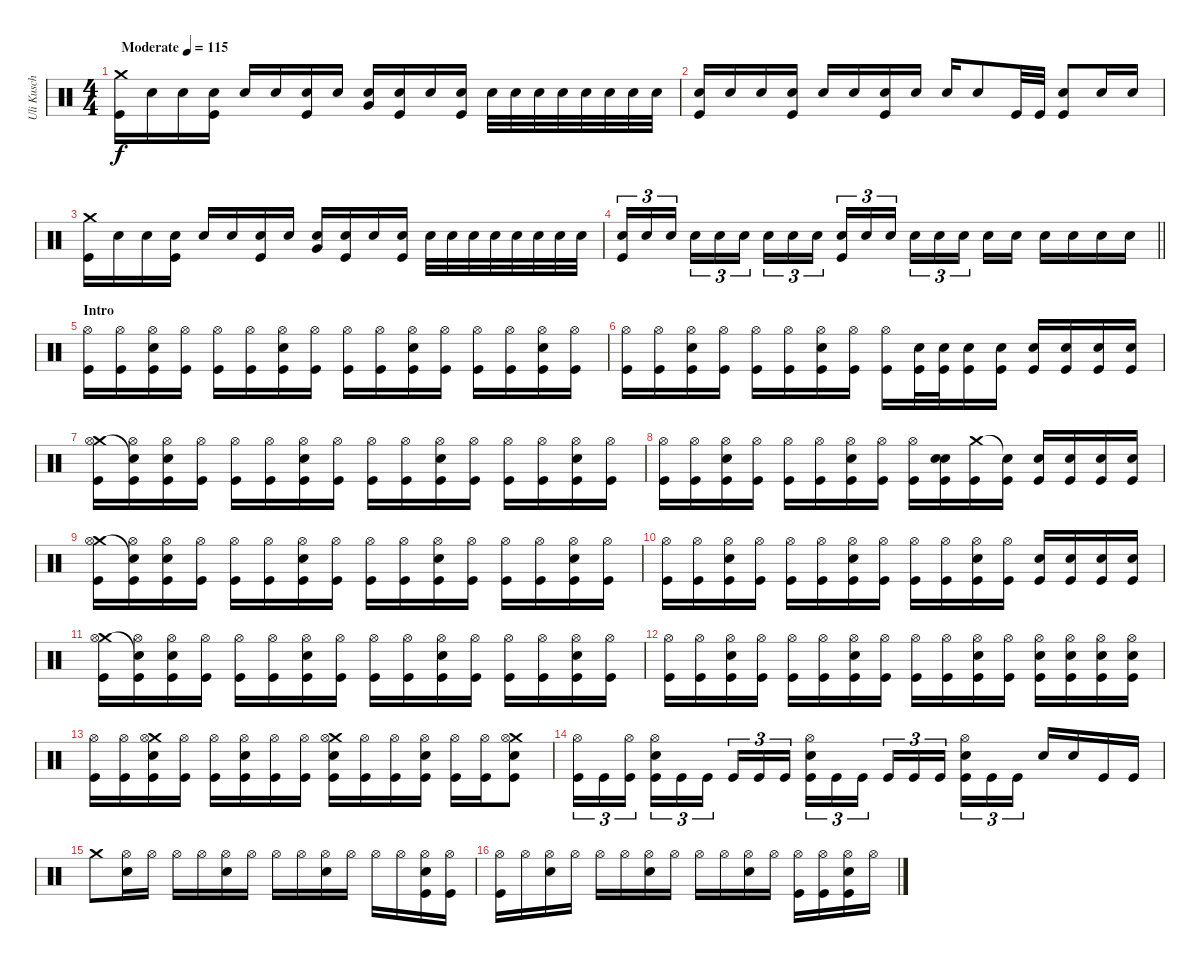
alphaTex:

\track ("Uli Kusch (Drums)" "Uli Kusch ") {instrument percussion}
\staff {score}
\articulation defaults
\ts (4 4)
\tempo (115 "Moderate")
\clef neutral
\ks c
("Crash medium (hit)" "Kick (hit)").16{dy f} "Snare (hit) 2".16 "Snare (hit) 2".16 ("Snare (hit) 2" "Kick (hit)").16 "Snare (hit) 2".16 "Snare (hit) 2".16 ("Snare (hit) 2" "Kick (hit)").16 "Snare (hit) 2".16 ("Snare (hit) 2" "Very Low Tom (hit)").16 ("Snare (hit) 2" "Kick (hit)").16 "Snare (hit) 2".16 ("Snare (hit) 2" "Kick (hit)").16 "Snare (hit) 2".32 "Snare (hit) 2".32 "Snare (hit) 2".32 "Snare (hit) 2".32 "Snare (hit) 2".32 "Snare (hit) 2".32 "Snare (hit) 2".32 "Snare (hit) 2".32 |
("Snare (hit) 2" "Kick (hit)").16 "Snare (hit) 2".16 "Snare (hit) 2".16 ("Snare (hit) 2" "Kick (hit)").16 "Snare (hit) 2".16 "Snare (hit) 2".16 ("Snare (hit) 2" "Kick (hit)").16 "Snare (hit) 2".16 "Electric Snare (hit)".16 "Electric Snare (hit)".8 "Kick (hit)".32 "Kick (hit)".32 ("Electric Snare (hit)" "Kick (hit)").8 "Electric Snare (hit)".16 "Electric Snare (hit)".16 |
("Crash medium (hit)" "Kick (hit)").16 "Snare (hit) 2".16 "Snare (hit) 2".16 ("Snare (hit) 2" "Kick (hit)").16 "Snare (hit) 2".16 "Snare (hit) 2".16 ("Snare (hit) 2" "Kick (hit)").16 "Snare (hit) 2".16 ("Snare (hit) 2" "Very Low Tom (hit)").16 ("Snare (hit) 2" "Kick (hit)").16 "Snare (hit) 2".16 ("Snare (hit) 2" "Kick (hit)").16 "Snare (hit) 2".32 "Snare (hit) 2".32 "Snare (hit) 2".32 "Snare (hit) 2".32 "Snare (hit) 2".32 "Snare (hit) 2".32 "Snare (hit) 2".32 "Snare (hit) 2".32 |
\barLineRight lightlight
("Snare (hit) 2" "Kick (hit)").16{tu (3 2)} "Snare (hit) 2".16{tu (3 2)} "Snare (hit) 2".16{tu (3 2) beam splitsecondary} "Snare (hit) 2".16{tu (3 2)} "Electric Snare (hit)".16{tu (3 2)} "Electric Snare (hit)".16{tu (3 2)} "Electric Snare (hit)".16{tu (3 2)} "Electric Snare (hit)".16{tu (3 2)} "Electric Snare (hit)".16{tu (3 2) beam splitsecondary} ("Snare (hit) 2" "Kick (hit)").16{tu (3 2)} "Snare (hit) 2".16{tu (3 2)} "Snare (hit) 2".16{tu (3 2)} "Electric Snare (hit)".16{tu (3 2)} "Electric Snare (hit)".16{tu (3 2)} "Electric Snare (hit)".16{tu (3 2) beam splitsecondary} "Electric Snare (hit)".16 "Electric Snare (hit)".16 "Electric Snare (hit)".16 "Electric Snare (hit)".16 "Electric Snare (hit)".16 "Electric Snare (hit)".16 |
\section ("" "Intro")
("Hi-Hat (open)" "Kick (hit)").16 ("Hi-Hat (open)" "Kick (hit)").16 ("Hi-Hat (open)" "Snare (hit) 2" "Kick (hit)").16 ("Hi-Hat (open)" "Kick (hit)").16 ("Hi-Hat (open)" "Kick (hit)").16 ("Hi-Hat (open)" "Kick (hit)").16 ("Hi-Hat (open)" "Snare (hit) 2" "Kick (hit)").16 ("Hi-Hat (open)" "Kick (hit)").16 ("Hi-Hat (open)" "Kick (hit)").16 ("Hi-Hat (open)" "Kick (hit)").16 ("Hi-Hat (open)" "Snare (hit) 2" "Kick (hit)").16 ("Hi-Hat (open)" "Kick (hit)").16 ("Hi-Hat (open)" "Kick (hit)").16 ("Hi-Hat (open)" "Kick (hit)").16 ("Hi-Hat (open)" "Snare (hit) 2" "Kick (hit)").16 ("Hi-Hat (open)" "Kick (hit)").16 |
("Hi-Hat (open)" "Kick (hit)").16 ("Hi-Hat (open)" "Kick (hit)").16 ("Hi-Hat (open)" "Snare (hit) 2" "Kick (hit)").16 ("Hi-Hat (open)" "Kick (hit)").16 ("Hi-Hat (open)" "Kick (hit)").16 ("Hi-Hat (open)" "Kick (hit)").16 ("Hi-Hat (open)" "Snare (hit) 2" "Kick (hit)").16 ("Hi-Hat (open)" "Kick (hit)").16 ("Hi-Hat (open)" "Kick (hit)").16 ("Snare (hit) 2" "Kick (hit)").32 ("Electric Snare (hit)" "Kick (hit)").32 ("Snare (hit) 2" "Kick (hit)").16 ("Snare (hit) 2" "Kick (hit)").16 ("Snare (hit) 2" "Kick (hit)").16 ("Electric Snare (hit)" "Kick (hit)").16 ("Snare (hit) 2" "Kick (hit)").16 ("Snare (hit) 2" "Kick (hit)").16 |
("Crash medium (hit)" "Hi-Hat (open)" "Kick (hit)").16 ("Snare (hit)"{t} "Hi-Hat (open)" "Kick (hit)").16 ("Hi-Hat (open)" "Snare (hit) 2" "Kick (hit)").16 ("Hi-Hat (open)" "Kick (hit)").16 ("Hi-Hat (open)" "Kick (hit)").16 ("Hi-Hat (open)" "Kick (hit)").16 ("Hi-Hat (open)" "Snare (hit) 2" "Kick (hit)").16 ("Hi-Hat (open)" "Kick (hit)").16 ("Hi-Hat (open)" "Kick (hit)").16 ("Hi-Hat (open)" "Kick (hit)").16 ("Hi-Hat (open)" "Snare (hit) 2" "Kick (hit)").16 ("Hi-Hat (open)" "Kick (hit)").16 ("Hi-Hat (open)" "Kick (hit)").16 ("Hi-Hat (open)" "Kick (hit)").16 ("Hi-Hat (open)" "Snare (hit) 2" "Kick (hit)").16 ("Hi-Hat (open)" "Kick (hit)").16 |
("Hi-Hat (open)" "Kick (hit)").16 ("Hi-Hat (open)" "Kick (hit)").16 ("Hi-Hat (open)" "Snare (hit) 2" "Kick (hit)").16 ("Hi-Hat (open)" "Kick (hit)").16 ("Hi-Hat (open)" "Kick (hit)").16 ("Hi-Hat (open)" "Kick (hit)").16 ("Hi-Hat (open)" "Snare (hit) 2" "Kick (hit)").16 ("Hi-Hat (open)" "Kick (hit)").16 ("Hi-Hat (open)" "Kick (hit)").16 ("Electric Snare (hit)" "Snare (hit) 2" "Kick (hit)").16 ("Crash medium (hit)" "Kick (hit)").16 ("Snare (hit)"{t} "Kick (hit)").16 ("Electric Snare (hit)" "Kick (hit)").16 ("Snare (hit) 2" "Kick (hit)").16 ("Snare (hit) 2" "Kick (hit)").16 ("Snare (hit) 2" "Kick (hit)").16 |
("Crash medium (hit)" "Hi-Hat (open)" "Kick (hit)").16 ("Snare (hit)"{t} "Hi-Hat (open)" "Kick (hit)").16 ("Hi-Hat (open)" "Snare (hit) 2" "Kick (hit)").16 ("Hi-Hat (open)" "Kick (hit)").16 ("Hi-Hat (open)" "Kick (hit)").16 ("Hi-Hat (open)" "Kick (hit)").16 ("Hi-Hat (open)" "Snare (hit) 2" "Kick (hit)").16 ("Hi-Hat (open)" "Kick (hit)").16 ("Hi-Hat (open)" "Kick (hit)").16 ("Hi-Hat (open)" "Kick (hit)").16 ("Hi-Hat (open)" "Snare (hit) 2" "Kick (hit)").16 ("Hi-Hat (open)" "Kick (hit)").16 ("Hi-Hat (open)" "Kick (hit)").16 ("Hi-Hat (open)" "Kick (hit)").16 ("Hi-Hat (open)" "Snare (hit) 2" "Kick (hit)").16 ("Hi-Hat (open)" "Kick (hit)").16 |
("Hi-Hat (open)" "Kick (hit)").16 ("Hi-Hat (open)" "Kick (hit)").16 ("Hi-Hat (open)" "Snare (hit) 2" "Kick (hit)").16 ("Hi-Hat (open)" "Kick (hit)").16 ("Hi-Hat (open)" "Kick (hit)").16 ("Hi-Hat (open)" "Kick (hit)").16 ("Hi-Hat (open)" "Snare (hit) 2" "Kick (hit)").16 ("Hi-Hat (open)" "Kick (hit)").16 ("Hi-Hat (open)" "Kick (hit)").16 ("Hi-Hat (open)" "Kick (hit)").16 ("Hi-Hat (open)" "Snare (hit) 2" "Kick (hit)").16 ("Hi-Hat (open)" "Kick (hit)").16 ("Snare (hit) 2" "Kick (hit)").16 ("Snare (hit) 2" "Kick (hit)").16 ("Snare (hit) 2" "Kick (hit)").16 ("Snare (hit) 2" "Kick (hit)").16 |
("Crash medium (hit)" "Hi-Hat (open)" "Kick (hit)").16 ("Snare (hit)"{t} "Hi-Hat (open)" "Kick (hit)").16 ("Hi-Hat (open)" "Snare (hit) 2" "Kick (hit)").16 ("Hi-Hat (open)" "Kick (hit)").16 ("Hi-Hat (open)" "Kick (hit)").16 ("Hi-Hat (open)" "Kick (hit)").16 ("Hi-Hat (open)" "Snare (hit) 2" "Kick (hit)").16 ("Hi-Hat (open)" "Kick (hit)").16 ("Hi-Hat (open)" "Kick (hit)").16 ("Hi-Hat (open)" "Kick (hit)").16 ("Hi-Hat (open)" "Snare (hit) 2" "Kick (hit)").16 ("Hi-Hat (open)" "Kick (hit)").16 ("Hi-Hat (open)" "Kick (hit)").16 ("Hi-Hat (open)" "Kick (hit)").16 ("Hi-Hat (open)" "Snare (hit) 2" "Kick (hit)").16 ("Hi-Hat (open)" "Kick (hit)").16 |
("Hi-Hat (open)" "Kick (hit)").16 ("Hi-Hat (open)" "Kick (hit)").16 ("Hi-Hat (open)" "Snare (hit) 2" "Kick (hit)").16 ("Hi-Hat (open)" "Kick (hit)").16 ("Hi-Hat (open)" "Kick (hit)").16 ("Hi-Hat (open)" "Kick (hit)").16 ("Hi-Hat (open)" "Snare (hit) 2" "Kick (hit)").16 ("Hi-Hat (open)" "Kick (hit)").16 ("Hi-Hat (open)" "Kick (hit)").16 ("Hi-Hat (open)" "Kick (hit)").16 ("Hi-Hat (open)" "Snare (hit) 2" "Kick (hit)").16 ("Hi-Hat (open)" "Kick (hit)").16 ("Hi-Hat (open)" "Snare (hit) 2" "Kick (hit)").16 ("Hi-Hat (open)" "Snare (hit) 2" "Kick (hit)").16 ("Hi-Hat (open)" "Snare (hit) 2" "Kick (hit)").16 ("Hi-Hat (open)" "Snare (hit) 2" "Kick (hit)").16 |
("Hi-Hat (open)" "Kick (hit)").16 ("Hi-Hat (open)" "Kick (hit)").16 ("Crash medium (hit)" "Hi-Hat (open)" "Snare (hit) 2" "Kick (hit)").16 ("Hi-Hat (open)" "Kick (hit)").16 ("Hi-Hat (open)" "Kick (hit)").16 ("Hi-Hat (open)" "Snare (hit) 2" "Kick (hit)").16 ("Hi-Hat (open)" "Kick (hit)").16 ("Hi-Hat (open)" "Kick (hit)").16 ("Crash medium (hit)" "Hi-Hat (open)" "Snare (hit) 2" "Kick (hit)").16 ("Hi-Hat (open)" "Kick (hit)").16 ("Hi-Hat (open)" "Kick (hit)").16 ("Hi-Hat (open)" "Snare (hit) 2" "Kick (hit)").16 ("Hi-Hat (open)" "Kick (hit)").16 ("Hi-Hat (open)" "Kick (hit)").16 ("Crash medium (hit)" "Hi-Hat (open)" "Snare (hit) 2" "Kick (hit)").8 |
("Hi-Hat (open)" "Kick (hit)").16{tu (3 2)} "Kick (hit)".16{tu (3 2)} ("Hi-Hat (open)" "Kick (hit)").16{tu (3 2) beam splitsecondary} ("Hi-Hat (open)" "Snare (hit) 2" "Kick (hit)").16{tu (3 2)} "Kick (hit)".16{tu (3 2)} "Kick (hit)".16{tu (3 2)} "Kick (hit)".16{tu (3 2)} "Kick (hit)".16{tu (3 2)} "Kick (hit)".16{tu (3 2) beam splitsecondary} ("Hi-Hat (open)" "Snare (hit) 2" "Kick (hit)").16{tu (3 2)} "Kick (hit)".16{tu (3 2)} "Kick (hit)".16{tu (3 2)} "Kick (hit)".16{tu (3 2)} "Kick (hit)".16{tu (3 2)} "Kick (hit)".16{tu (3 2) beam splitsecondary} ("Hi-Hat (open)" "Snare (hit) 2" "Kick (hit)").16{tu (3 2)} "Kick (hit)".16{tu (3 2)} "Kick (hit)".16{tu (3 2)} "Snare (hit) 2".16 "Snare (hit) 2".16 "Kick (hit)".16 "Kick (hit)".16 |
"Crash medium (hit)".8 ("Hi-Hat (open)" "Snare (hit) 2").16 "Hi-Hat (open)".16 "Hi-Hat (open)".16 "Hi-Hat (open)".16 ("Hi-Hat (open)" "Snare (hit) 2").16 "Hi-Hat (open)".16 "Hi-Hat (open)".16 "Hi-Hat (open)".16 ("Hi-Hat (open)" "Snare (hit) 2").16 "Hi-Hat (open)".16 "Hi-Hat (open)".16 "Hi-Hat (open)".16 ("Hi-Hat (open)" "Snare (hit) 2" "Kick (hit)").16 ("Hi-Hat (open)" "Kick (hit)").16 |
("Hi-Hat (open)" "Kick (hit)").16 "Hi-Hat (open)".16 ("Hi-Hat (open)" "Snare (hit) 2").16 "Hi-Hat (open)".16 "Hi-Hat (open)".16 "Hi-Hat (open)".16 ("Hi-Hat (open)" "Snare (hit) 2").16 "Hi-Hat (open)".16 "Hi-Hat (open)".16 "Hi-Hat (open)".16 ("Hi-Hat (open)" "Snare (hit) 2").16 "Hi-Hat (open)".16 ("Hi-Hat (open)" "Kick (hit)").16 ("Hi-Hat (open)" "Kick (hit)").16 ("Hi-Hat (open)" "Snare (hit) 2" "Kick (hit)").16 "Hi-Hat (open)".16
